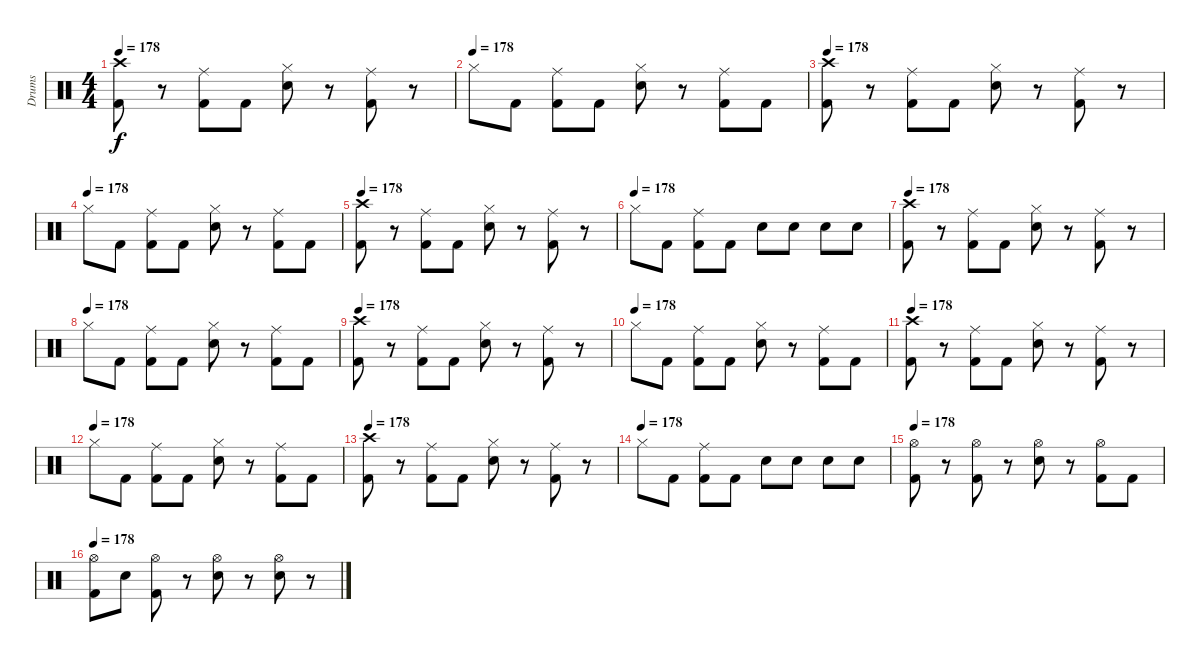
\track ("Drums" "Drums") {instrument percussion}
\staff {score}
\articulation defaults
\ts (4 4)
\tempo 178
\clef neutral
\ks c
("Crash high (hit)" "Kick (hit) 2").8{dy f} r.8 ("Ride (middle)" "Kick (hit) 2").8 "Kick (hit) 2".8 ("Hi-Hat (closed)" "Snare (hit) 2").8 r.8 ("Ride (middle)" "Kick (hit) 2").8 r.8 |
\tempo (178)
"Hi-Hat (closed)".8 "Kick (hit) 2".8 ("Ride (middle)" "Kick (hit) 2").8 "Kick (hit) 2".8 ("Hi-Hat (closed)" "Snare (hit) 2").8 r.8 ("Ride (middle)" "Kick (hit) 2").8 "Kick (hit) 2".8 |
\tempo 178
("Crash high (hit)" "Kick (hit) 2").8 r.8 ("Ride (middle)" "Kick (hit) 2").8 "Kick (hit) 2".8 ("Hi-Hat (closed)" "Snare (hit) 2").8 r.8 ("Ride (middle)" "Kick (hit) 2").8 r.8 |
\tempo (178)
"Hi-Hat (closed)".8 "Kick (hit) 2".8 ("Ride (middle)" "Kick (hit) 2").8 "Kick (hit) 2".8 ("Hi-Hat (closed)" "Snare (hit) 2").8 r.8 ("Ride (middle)" "Kick (hit) 2").8 "Kick (hit) 2".8 |
\tempo 178
("Crash high (hit)" "Kick (hit) 2").8 r.8 ("Ride (middle)" "Kick (hit) 2").8 "Kick (hit) 2".8 ("Hi-Hat (closed)" "Snare (hit) 2").8 r.8 ("Ride (middle)" "Kick (hit) 2").8 r.8 |
\tempo (178)
"Hi-Hat (closed)".8 "Kick (hit) 2".8 ("Ride (middle)" "Kick (hit) 2").8 "Kick (hit) 2".8 "Snare (hit) 2".8 "Snare (hit) 2".8 "Snare (hit) 2".8 "Snare (hit) 2".8 |
\tempo 178
("Crash high (hit)" "Kick (hit) 2").8 r.8 ("Ride (middle)" "Kick (hit) 2").8 "Kick (hit) 2".8 ("Hi-Hat (closed)" "Snare (hit) 2").8 r.8 ("Ride (middle)" "Kick (hit) 2").8 r.8 |
\tempo (178)
"Hi-Hat (closed)".8 "Kick (hit) 2".8 ("Ride (middle)" "Kick (hit) 2").8 "Kick (hit) 2".8 ("Hi-Hat (closed)" "Snare (hit) 2").8 r.8 ("Ride (middle)" "Kick (hit) 2").8 "Kick (hit) 2".8 |
\tempo 178
("Crash high (hit)" "Kick (hit) 2").8 r.8 ("Ride (middle)" "Kick (hit) 2").8 "Kick (hit) 2".8 ("Hi-Hat (closed)" "Snare (hit) 2").8 r.8 ("Ride (middle)" "Kick (hit) 2").8 r.8 |
\tempo (178)
"Hi-Hat (closed)".8 "Kick (hit) 2".8 ("Ride (middle)" "Kick (hit) 2").8 "Kick (hit) 2".8 ("Hi-Hat (closed)" "Snare (hit) 2").8 r.8 ("Ride (middle)" "Kick (hit) 2").8 "Kick (hit) 2".8 |
\tempo 178
("Crash high (hit)" "Kick (hit) 2").8 r.8 ("Ride (middle)" "Kick (hit) 2").8 "Kick (hit) 2".8 ("Hi-Hat (closed)" "Snare (hit) 2").8 r.8 ("Ride (middle)" "Kick (hit) 2").8 r.8 |
\tempo (178)
"Hi-Hat (closed)".8 "Kick (hit) 2".8 ("Ride (middle)" "Kick (hit) 2").8 "Kick (hit) 2".8 ("Hi-Hat (closed)" "Snare (hit) 2").8 r.8 ("Ride (middle)" "Kick (hit) 2").8 "Kick (hit) 2".8 |
\tempo 178
("Crash high (hit)" "Kick (hit) 2").8 r.8 ("Ride (middle)" "Kick (hit) 2").8 "Kick (hit) 2".8 ("Hi-Hat (closed)" "Snare (hit) 2").8 r.8 ("Ride (middle)" "Kick (hit) 2").8 r.8 |
\tempo (178)
"Hi-Hat (closed)".8 "Kick (hit) 2".8 ("Ride (middle)" "Kick (hit) 2").8 "Kick (hit) 2".8 "Snare (hit) 2".8 "Snare (hit) 2".8 "Snare (hit) 2".8 "Snare (hit) 2".8 |
\tempo 178
("Hi-Hat (open)" "Kick (hit) 2").8 r.8 ("Hi-Hat (open)" "Kick (hit) 2").8 r.8 ("Hi-Hat (open)" "Snare (hit) 2").8 r.8 ("Hi-Hat (open)" "Kick (hit) 2").8 "Kick (hit) 2".8 |
\tempo 178
("Hi-Hat (open)" "Kick (hit) 2").8 "Snare (hit) 2".8 ("Hi-Hat (open)" "Kick (hit) 2").8 r.8 ("Hi-Hat (open)" "Snare (hit) 2").8 r.8 ("Hi-Hat (open)" "Snare (hit) 2").8 r.8
